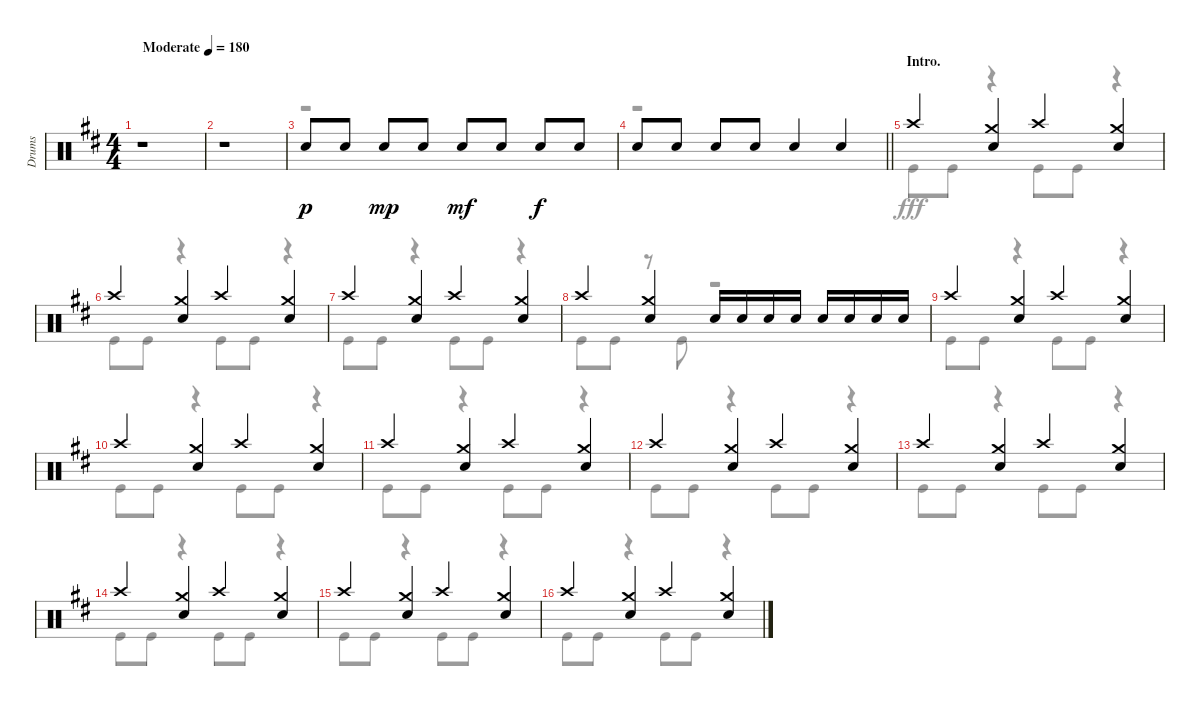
\track ("Drums" "Drums") {instrument percussion}
\staff {score}
\articulation defaults
\voice
\ts (4 4)
\tempo (180 "Moderate")
\clef neutral
\ks d
r.1{dy p} |
r.1 |
"Snare (hit) 2".8 "Snare (hit) 2".8 "Snare (hit) 2".8{dy mp} "Snare (hit) 2".8 "Snare (hit) 2".8{dy mf} "Snare (hit) 2".8 "Snare (hit) 2".8{dy f} "Snare (hit) 2".8 |
\barLineRight lightlight "Snare (hit) 2".8 "Snare (hit) 2".8 "Snare (hit) 2".8 "Snare (hit) 2".8 "Snare (hit) 2".4 "Snare (hit) 2".4
|
\section ("" "Intro.")
"Crash high (hit)".4 ("Crash medium (hit)" "Snare (hit) 2").4 "Crash high (hit)".4 ("Crash medium (hit)" "Snare (hit) 2").4 |
"Crash high (hit)".4 ("Crash medium (hit)" "Snare (hit) 2").4 "Crash high (hit)".4 ("Crash medium (hit)" "Snare (hit) 2").4 |
"Crash high (hit)".4 ("Crash medium (hit)" "Snare (hit) 2").4 "Crash high (hit)".4 ("Crash medium (hit)" "Snare (hit) 2").4 |
"Crash high (hit)".4 ("Crash medium (hit)" "Snare (hit) 2").4 "Snare (hit) 2".16 "Snare (hit) 2".16 "Snare (hit) 2".16 "Snare (hit) 2".16 "Snare (hit) 2".16 "Snare (hit) 2".16 "Snare (hit) 2".16 "Snare (hit) 2".16 |
"Crash high (hit)".4 ("Crash medium (hit)" "Snare (hit) 2").4 "Crash high (hit)".4 ("Crash medium (hit)" "Snare (hit) 2").4 |
"Crash high (hit)".4 ("Crash medium (hit)" "Snare (hit) 2").4 "Crash high (hit)".4 ("Crash medium (hit)" "Snare (hit) 2").4 |
"Crash high (hit)".4 ("Crash medium (hit)" "Snare (hit) 2").4 "Crash high (hit)".4 ("Crash medium (hit)" "Snare (hit) 2").4 |
"Crash high (hit)".4 ("Crash medium (hit)" "Snare (hit) 2").4 "Crash high (hit)".4 ("Crash medium (hit)" "Snare (hit) 2").4 |
"Crash high (hit)".4 ("Crash medium (hit)" "Snare (hit) 2").4 "Crash high (hit)".4 ("Crash medium (hit)" "Snare (hit) 2").4 |
"Crash high (hit)".4 ("Crash medium (hit)" "Snare (hit) 2").4 "Crash high (hit)".4 ("Crash medium (hit)" "Snare (hit) 2").4 |
"Crash high (hit)".4 ("Crash medium (hit)" "Snare (hit) 2").4 "Crash high (hit)".4 ("Crash medium (hit)" "Snare (hit) 2").4 |
"Crash high (hit)".4 ("Crash medium (hit)" "Snare (hit) 2").4 "Crash high (hit)".4 ("Crash medium (hit)" "Snare (hit) 2").4
\voice
\clef neutral
\ottava regular
\simile none
\ks d
r.1{dy fff} |
r.1 |
r.1 |
\barLineRight lightlight
r.1 |
"Kick (hit)".8 "Kick (hit)".8 r.4 "Kick (hit)".8 "Kick (hit)".8 r.4 |
"Kick (hit)".8 "Kick (hit)".8 r.4 "Kick (hit)".8 "Kick (hit)".8 r.4 |
"Kick (hit)".8 "Kick (hit)".8 r.4 "Kick (hit)".8 "Kick (hit)".8 r.4 |
"Kick (hit)".8 "Kick (hit)".8 r.8 "Kick (hit)".8 r.2 |
"Kick (hit)".8 "Kick (hit)".8 r.4 "Kick (hit)".8 "Kick (hit)".8 r.4 |
"Kick (hit)".8 "Kick (hit)".8 r.4 "Kick (hit)".8 "Kick (hit)".8 r.4 |
"Kick (hit)".8 "Kick (hit)".8 r.4 "Kick (hit)".8 "Kick (hit)".8 r.4 |
"Kick (hit)".8 "Kick (hit)".8 r.4 "Kick (hit)".8 "Kick (hit)".8 r.4 |
"Kick (hit)".8 "Kick (hit)".8 r.4 "Kick (hit)".8 "Kick (hit)".8 r.4 |
"Kick (hit)".8 "Kick (hit)".8 r.4 "Kick (hit)".8 "Kick (hit)".8 r.4 |
"Kick (hit)".8 "Kick (hit)".8 r.4 "Kick (hit)".8 "Kick (hit)".8 r.4 |
"Kick (hit)".8 "Kick (hit)".8 r.4 "Kick (hit)".8 "Kick (hit)".8 r.4
